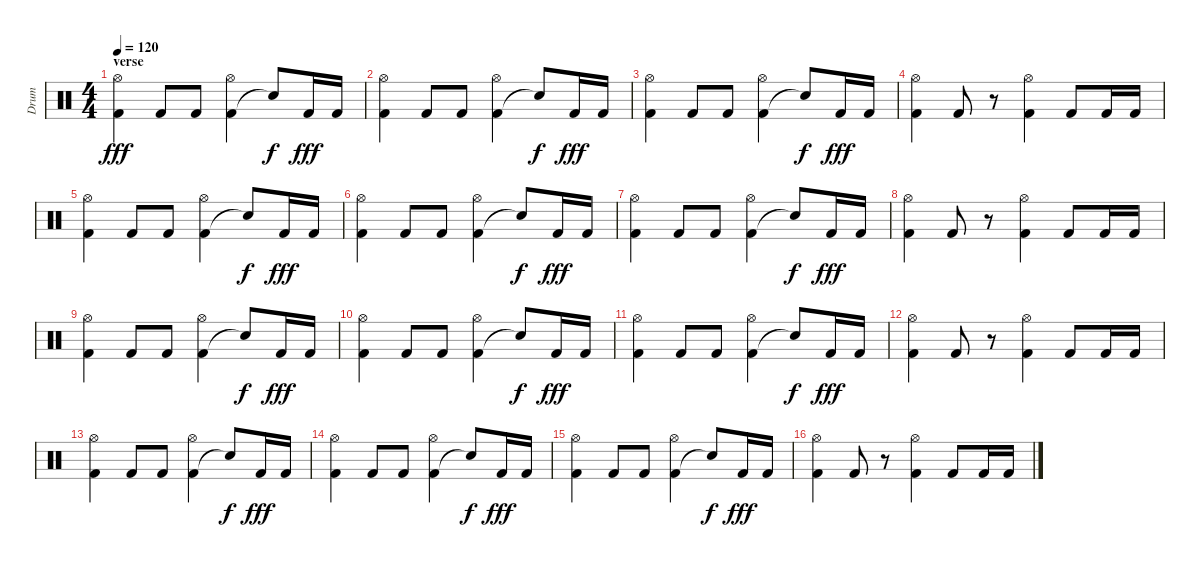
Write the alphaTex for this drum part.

\track ("Drum" "Drum") {instrument percussion}
\staff {score}
\articulation defaults
\ts (4 4)
\section ("" "verse")
\tempo 120
\clef neutral
\ks c
("Kick (hit) 2" "Hi-Hat (open)").4{dy fff} "Kick (hit) 2".8 "Kick (hit) 2".8 ("Kick (hit) 2" "Hi-Hat (open)").4 "Snare (hit)"{t}.8{dy f} "Kick (hit) 2".16{dy fff} "Kick (hit) 2".16 |
("Kick (hit) 2" "Hi-Hat (open)").4 "Kick (hit) 2".8 "Kick (hit) 2".8 ("Kick (hit) 2" "Hi-Hat (open)").4 "Snare (hit)"{t}.8{dy f} "Kick (hit) 2".16{dy fff} "Kick (hit) 2".16 |
("Kick (hit) 2" "Hi-Hat (open)").4 "Kick (hit) 2".8 "Kick (hit) 2".8 ("Kick (hit) 2" "Hi-Hat (open)").4 "Snare (hit)"{t}.8{dy f} "Kick (hit) 2".16{dy fff} "Kick (hit) 2".16 |
("Kick (hit) 2" "Hi-Hat (open)").4 "Kick (hit) 2".8 r.8 ("Kick (hit) 2" "Hi-Hat (open)").4 "Kick (hit) 2".8 "Kick (hit) 2".16 "Kick (hit) 2".16 |
("Kick (hit) 2" "Hi-Hat (open)").4 "Kick (hit) 2".8 "Kick (hit) 2".8 ("Kick (hit) 2" "Hi-Hat (open)").4 "Snare (hit)"{t}.8{dy f} "Kick (hit) 2".16{dy fff} "Kick (hit) 2".16 |
("Kick (hit) 2" "Hi-Hat (open)").4 "Kick (hit) 2".8 "Kick (hit) 2".8 ("Kick (hit) 2" "Hi-Hat (open)").4 "Snare (hit)"{t}.8{dy f} "Kick (hit) 2".16{dy fff} "Kick (hit) 2".16 |
("Kick (hit) 2" "Hi-Hat (open)").4 "Kick (hit) 2".8 "Kick (hit) 2".8 ("Kick (hit) 2" "Hi-Hat (open)").4 "Snare (hit)"{t}.8{dy f} "Kick (hit) 2".16{dy fff} "Kick (hit) 2".16 |
("Kick (hit) 2" "Hi-Hat (open)").4 "Kick (hit) 2".8 r.8 ("Kick (hit) 2" "Hi-Hat (open)").4 "Kick (hit) 2".8 "Kick (hit) 2".16 "Kick (hit) 2".16 |
("Kick (hit) 2" "Hi-Hat (open)").4 "Kick (hit) 2".8 "Kick (hit) 2".8 ("Kick (hit) 2" "Hi-Hat (open)").4 "Snare (hit)"{t}.8{dy f} "Kick (hit) 2".16{dy fff} "Kick (hit) 2".16 |
("Kick (hit) 2" "Hi-Hat (open)").4 "Kick (hit) 2".8 "Kick (hit) 2".8 ("Kick (hit) 2" "Hi-Hat (open)").4 "Snare (hit)"{t}.8{dy f} "Kick (hit) 2".16{dy fff} "Kick (hit) 2".16 |
("Kick (hit) 2" "Hi-Hat (open)").4 "Kick (hit) 2".8 "Kick (hit) 2".8 ("Kick (hit) 2" "Hi-Hat (open)").4 "Snare (hit)"{t}.8{dy f} "Kick (hit) 2".16{dy fff} "Kick (hit) 2".16 |
("Kick (hit) 2" "Hi-Hat (open)").4 "Kick (hit) 2".8 r.8 ("Kick (hit) 2" "Hi-Hat (open)").4 "Kick (hit) 2".8 "Kick (hit) 2".16 "Kick (hit) 2".16 |
("Kick (hit) 2" "Hi-Hat (open)").4 "Kick (hit) 2".8 "Kick (hit) 2".8 ("Kick (hit) 2" "Hi-Hat (open)").4 "Snare (hit)"{t}.8{dy f} "Kick (hit) 2".16{dy fff} "Kick (hit) 2".16 |
("Kick (hit) 2" "Hi-Hat (open)").4 "Kick (hit) 2".8 "Kick (hit) 2".8 ("Kick (hit) 2" "Hi-Hat (open)").4 "Snare (hit)"{t}.8{dy f} "Kick (hit) 2".16{dy fff} "Kick (hit) 2".16 |
("Kick (hit) 2" "Hi-Hat (open)").4 "Kick (hit) 2".8 "Kick (hit) 2".8 ("Kick (hit) 2" "Hi-Hat (open)").4 "Snare (hit)"{t}.8{dy f} "Kick (hit) 2".16{dy fff} "Kick (hit) 2".16 |
("Kick (hit) 2" "Hi-Hat (open)").4 "Kick (hit) 2".8 r.8 ("Kick (hit) 2" "Hi-Hat (open)").4 "Kick (hit) 2".8 "Kick (hit) 2".16 "Kick (hit) 2".16
